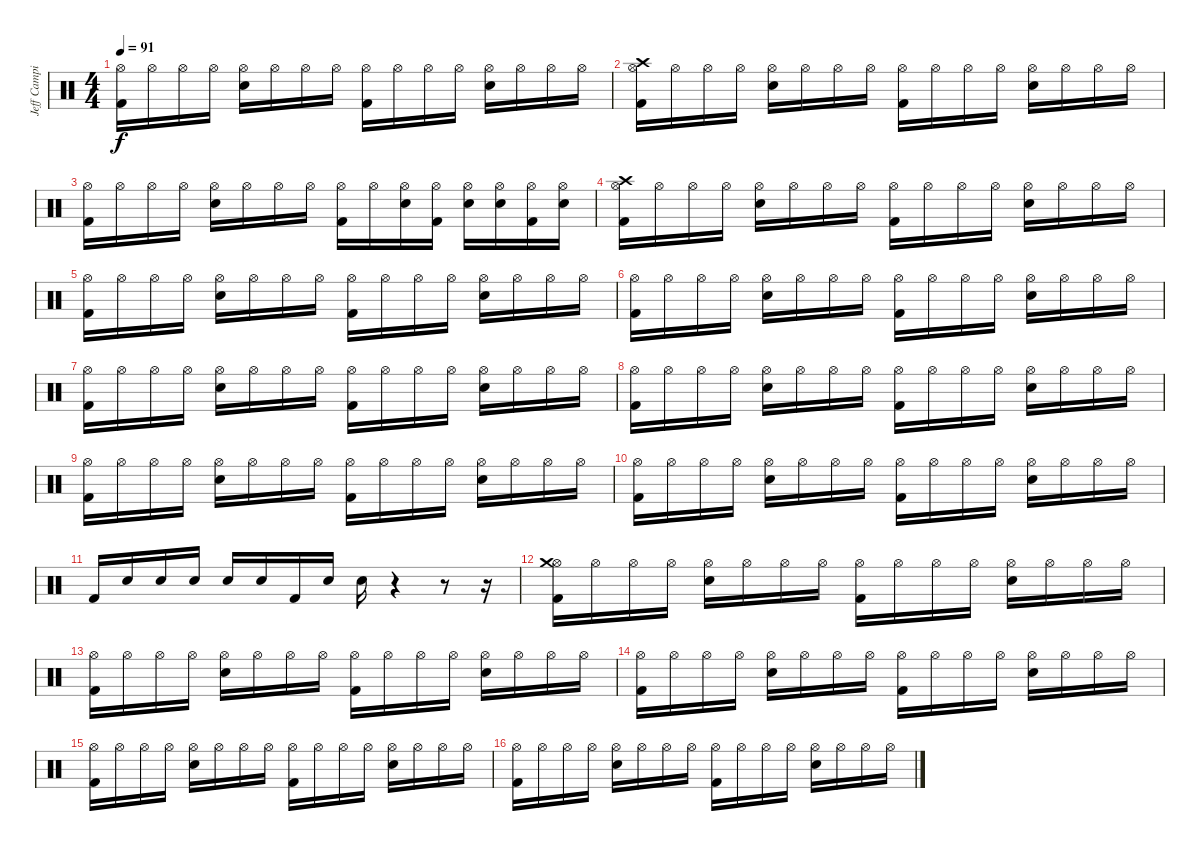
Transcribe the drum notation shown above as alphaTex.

\track ("Jeff Campitelli" "Jeff Campi") {instrument percussion}
\staff {score}
\articulation defaults
\ts (4 4)
\tempo 91
\clef neutral
\ks c
("Kick (hit) 2" "Hi-Hat (open)").16{dy f} "Hi-Hat (open)".16 "Hi-Hat (open)".16 "Hi-Hat (open)".16 ("Snare (hit) 2" "Hi-Hat (open)").16 "Hi-Hat (open)".16 "Hi-Hat (open)".16 "Hi-Hat (open)".16 ("Kick (hit) 2" "Hi-Hat (open)").16 "Hi-Hat (open)".16 "Hi-Hat (open)".16 "Hi-Hat (open)".16 ("Snare (hit) 2" "Hi-Hat (open)").16 "Hi-Hat (open)".16 "Hi-Hat (open)".16 "Hi-Hat (open)".16 |
("Crash high (hit)" "Kick (hit) 2" "Hi-Hat (open)").16 "Hi-Hat (open)".16 "Hi-Hat (open)".16 "Hi-Hat (open)".16 ("Snare (hit) 2" "Hi-Hat (open)").16 "Hi-Hat (open)".16 "Hi-Hat (open)".16 "Hi-Hat (open)".16 ("Kick (hit) 2" "Hi-Hat (open)").16 "Hi-Hat (open)".16 "Hi-Hat (open)".16 "Hi-Hat (open)".16 ("Snare (hit) 2" "Hi-Hat (open)").16 "Hi-Hat (open)".16 "Hi-Hat (open)".16 "Hi-Hat (open)".16 |
("Kick (hit) 2" "Hi-Hat (open)").16 "Hi-Hat (open)".16 "Hi-Hat (open)".16 "Hi-Hat (open)".16 ("Snare (hit) 2" "Hi-Hat (open)").16 "Hi-Hat (open)".16 "Hi-Hat (open)".16 "Hi-Hat (open)".16 ("Kick (hit) 2" "Hi-Hat (open)").16 "Hi-Hat (open)".16 ("Snare (hit) 2" "Hi-Hat (open)").16 ("Kick (hit) 2" "Hi-Hat (open)").16 ("Snare (hit) 2" "Hi-Hat (open)").16 ("Snare (hit) 2" "Hi-Hat (open)").16 ("Kick (hit) 2" "Hi-Hat (open)").16 ("Snare (hit) 2" "Hi-Hat (open)").16 |
("Kick (hit) 2" "Hi-Hat (open)" "Crash high (hit)").16 "Hi-Hat (open)".16 "Hi-Hat (open)".16 "Hi-Hat (open)".16 ("Snare (hit) 2" "Hi-Hat (open)").16 "Hi-Hat (open)".16 "Hi-Hat (open)".16 "Hi-Hat (open)".16 ("Kick (hit) 2" "Hi-Hat (open)").16 "Hi-Hat (open)".16 "Hi-Hat (open)".16 "Hi-Hat (open)".16 ("Snare (hit) 2" "Hi-Hat (open)").16 "Hi-Hat (open)".16 "Hi-Hat (open)".16 "Hi-Hat (open)".16 |
("Kick (hit) 2" "Hi-Hat (open)").16 "Hi-Hat (open)".16 "Hi-Hat (open)".16 "Hi-Hat (open)".16 ("Snare (hit) 2" "Hi-Hat (open)").16 "Hi-Hat (open)".16 "Hi-Hat (open)".16 "Hi-Hat (open)".16 ("Kick (hit) 2" "Hi-Hat (open)").16 "Hi-Hat (open)".16 "Hi-Hat (open)".16 "Hi-Hat (open)".16 ("Snare (hit) 2" "Hi-Hat (open)").16 "Hi-Hat (open)".16 "Hi-Hat (open)".16 "Hi-Hat (open)".16 |
("Kick (hit) 2" "Hi-Hat (open)").16 "Hi-Hat (open)".16 "Hi-Hat (open)".16 "Hi-Hat (open)".16 ("Snare (hit) 2" "Hi-Hat (open)").16 "Hi-Hat (open)".16 "Hi-Hat (open)".16 "Hi-Hat (open)".16 ("Kick (hit) 2" "Hi-Hat (open)").16 "Hi-Hat (open)".16 "Hi-Hat (open)".16 "Hi-Hat (open)".16 ("Snare (hit) 2" "Hi-Hat (open)").16 "Hi-Hat (open)".16 "Hi-Hat (open)".16 "Hi-Hat (open)".16 |
("Kick (hit) 2" "Hi-Hat (open)").16 "Hi-Hat (open)".16 "Hi-Hat (open)".16 "Hi-Hat (open)".16 ("Snare (hit) 2" "Hi-Hat (open)").16 "Hi-Hat (open)".16 "Hi-Hat (open)".16 "Hi-Hat (open)".16 ("Kick (hit) 2" "Hi-Hat (open)").16 "Hi-Hat (open)".16 "Hi-Hat (open)".16 "Hi-Hat (open)".16 ("Snare (hit) 2" "Hi-Hat (open)").16 "Hi-Hat (open)".16 "Hi-Hat (open)".16 "Hi-Hat (open)".16 |
("Kick (hit) 2" "Hi-Hat (open)").16 "Hi-Hat (open)".16 "Hi-Hat (open)".16 "Hi-Hat (open)".16 ("Snare (hit) 2" "Hi-Hat (open)").16 "Hi-Hat (open)".16 "Hi-Hat (open)".16 "Hi-Hat (open)".16 ("Kick (hit) 2" "Hi-Hat (open)").16 "Hi-Hat (open)".16 "Hi-Hat (open)".16 "Hi-Hat (open)".16 ("Snare (hit) 2" "Hi-Hat (open)").16 "Hi-Hat (open)".16 "Hi-Hat (open)".16 "Hi-Hat (open)".16 |
("Kick (hit) 2" "Hi-Hat (open)").16 "Hi-Hat (open)".16 "Hi-Hat (open)".16 "Hi-Hat (open)".16 ("Snare (hit) 2" "Hi-Hat (open)").16 "Hi-Hat (open)".16 "Hi-Hat (open)".16 "Hi-Hat (open)".16 ("Kick (hit) 2" "Hi-Hat (open)").16 "Hi-Hat (open)".16 "Hi-Hat (open)".16 "Hi-Hat (open)".16 ("Snare (hit) 2" "Hi-Hat (open)").16 "Hi-Hat (open)".16 "Hi-Hat (open)".16 "Hi-Hat (open)".16 |
("Kick (hit) 2" "Hi-Hat (open)").16 "Hi-Hat (open)".16 "Hi-Hat (open)".16 "Hi-Hat (open)".16 ("Snare (hit) 2" "Hi-Hat (open)").16 "Hi-Hat (open)".16 "Hi-Hat (open)".16 "Hi-Hat (open)".16 ("Kick (hit) 2" "Hi-Hat (open)").16 "Hi-Hat (open)".16 "Hi-Hat (open)".16 "Hi-Hat (open)".16 ("Snare (hit) 2" "Hi-Hat (open)").16 "Hi-Hat (open)".16 "Hi-Hat (open)".16 "Hi-Hat (open)".16 |
"Kick (hit) 2".16 "Snare (hit) 2".16 "Snare (hit) 2".16 "Snare (hit) 2".16 "Snare (hit) 2".16 "Snare (hit) 2".16 "Kick (hit) 2".16 "Snare (hit) 2".16 "Snare (hit) 2".16 r.4 r.8 r.16 |
("Kick (hit) 2" "Hi-Hat (open)" "Crash medium (hit)").16 "Hi-Hat (open)".16 "Hi-Hat (open)".16 "Hi-Hat (open)".16 ("Snare (hit) 2" "Hi-Hat (open)").16 "Hi-Hat (open)".16 "Hi-Hat (open)".16 "Hi-Hat (open)".16 ("Kick (hit) 2" "Hi-Hat (open)").16 "Hi-Hat (open)".16 "Hi-Hat (open)".16 "Hi-Hat (open)".16 ("Snare (hit) 2" "Hi-Hat (open)").16 "Hi-Hat (open)".16 "Hi-Hat (open)".16 "Hi-Hat (open)".16 |
("Kick (hit) 2" "Hi-Hat (open)").16 "Hi-Hat (open)".16 "Hi-Hat (open)".16 "Hi-Hat (open)".16 ("Snare (hit) 2" "Hi-Hat (open)").16 "Hi-Hat (open)".16 "Hi-Hat (open)".16 "Hi-Hat (open)".16 ("Kick (hit) 2" "Hi-Hat (open)").16 "Hi-Hat (open)".16 "Hi-Hat (open)".16 "Hi-Hat (open)".16 ("Snare (hit) 2" "Hi-Hat (open)").16 "Hi-Hat (open)".16 "Hi-Hat (open)".16 "Hi-Hat (open)".16 |
("Kick (hit) 2" "Hi-Hat (open)").16 "Hi-Hat (open)".16 "Hi-Hat (open)".16 "Hi-Hat (open)".16 ("Snare (hit) 2" "Hi-Hat (open)").16 "Hi-Hat (open)".16 "Hi-Hat (open)".16 "Hi-Hat (open)".16 ("Kick (hit) 2" "Hi-Hat (open)").16 "Hi-Hat (open)".16 "Hi-Hat (open)".16 "Hi-Hat (open)".16 ("Snare (hit) 2" "Hi-Hat (open)").16 "Hi-Hat (open)".16 "Hi-Hat (open)".16 "Hi-Hat (open)".16 |
("Kick (hit) 2" "Hi-Hat (open)").16 "Hi-Hat (open)".16 "Hi-Hat (open)".16 "Hi-Hat (open)".16 ("Snare (hit) 2" "Hi-Hat (open)").16 "Hi-Hat (open)".16 "Hi-Hat (open)".16 "Hi-Hat (open)".16 ("Kick (hit) 2" "Hi-Hat (open)").16 "Hi-Hat (open)".16 "Hi-Hat (open)".16 "Hi-Hat (open)".16 ("Snare (hit) 2" "Hi-Hat (open)").16 "Hi-Hat (open)".16 "Hi-Hat (open)".16 "Hi-Hat (open)".16 |
("Kick (hit) 2" "Hi-Hat (open)").16 "Hi-Hat (open)".16 "Hi-Hat (open)".16 "Hi-Hat (open)".16 ("Snare (hit) 2" "Hi-Hat (open)").16 "Hi-Hat (open)".16 "Hi-Hat (open)".16 "Hi-Hat (open)".16 ("Kick (hit) 2" "Hi-Hat (open)").16 "Hi-Hat (open)".16 "Hi-Hat (open)".16 "Hi-Hat (open)".16 ("Snare (hit) 2" "Hi-Hat (open)").16 "Hi-Hat (open)".16 "Hi-Hat (open)".16 "Hi-Hat (open)".16
